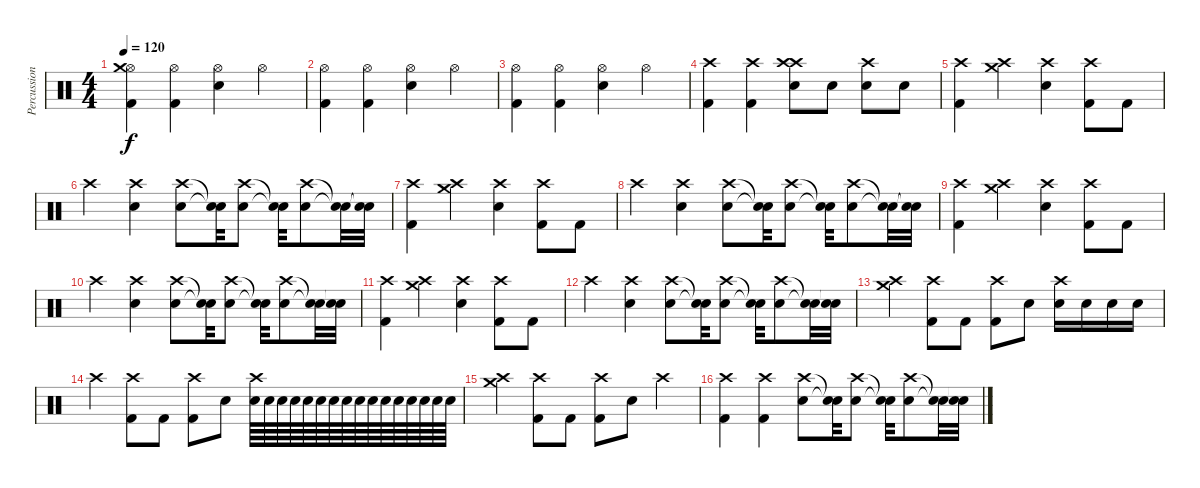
\track ("Percussioni" "Percussion") {instrument percussion}
\staff {score}
\articulation defaults
\ts (4 4)
\tempo 120
\clef neutral
\ks c
("Hi-Hat (open)" "Crash medium (hit)" "Kick (hit) 2").4{dy f} ("Hi-Hat (open)" "Kick (hit) 2").4 ("Hi-Hat (open)" "Snare (hit) 2").4 "Hi-Hat (open)".4 |
("Hi-Hat (open)" "Kick (hit) 2").4 ("Hi-Hat (open)" "Kick (hit) 2").4 ("Hi-Hat (open)" "Snare (hit) 2").4 "Hi-Hat (open)".4 |
("Hi-Hat (open)" "Kick (hit) 2").4 ("Hi-Hat (open)" "Kick (hit) 2").4 ("Hi-Hat (open)" "Snare (hit) 2").4 "Hi-Hat (open)".4 |
("Crash high (hit)" "Kick (hit) 2").4 ("Crash high (hit)" "Kick (hit) 2").4 ("Crash high (hit)" "Crash high (hit)" "Snare (hit) 2").8 "Snare (hit) 2".8 ("Crash high (hit)" "Snare (hit) 2").8 "Snare (hit) 2".8 |
("Crash high (hit)" "Kick (hit) 2").4 ("Crash high (hit)" "Crash medium (hit)").4 ("Crash high (hit)" "Snare (hit) 2").4 ("Crash high (hit)" "Kick (hit) 2").8 "Kick (hit) 2".8 |
"Crash high (hit)".4 ("Crash high (hit)" "Snare (hit) 2").4 ("Crash high (hit)" "Snare (hit) 2").8 ("Snare (hit)"{t} "Snare (hit)"{t}).32 ("Crash high (hit)" "Snare (hit) 2").8 ("Snare (hit)"{t} "Snare (hit)"{t}).32 ("Crash high (hit)" "Snare (hit) 2").8 ("Snare (hit)"{t} "Snare (hit)"{t}).32 ("Snare (hit)"{t} "Snare (hit)"{t}).32 |
("Crash high (hit)" "Kick (hit) 2").4 ("Crash high (hit)" "Crash medium (hit)").4 ("Crash high (hit)" "Snare (hit) 2").4 ("Crash high (hit)" "Kick (hit) 2").8 "Kick (hit) 2".8 |
"Crash high (hit)".4 ("Crash high (hit)" "Snare (hit) 2").4 ("Crash high (hit)" "Snare (hit) 2").8 ("Snare (hit)"{t} "Snare (hit)"{t}).32 ("Crash high (hit)" "Snare (hit) 2").8 ("Snare (hit)"{t} "Snare (hit)"{t}).32 ("Crash high (hit)" "Snare (hit) 2").8 ("Snare (hit)"{t} "Snare (hit)"{t}).32 ("Snare (hit)"{t} "Snare (hit)"{t}).32 |
("Crash high (hit)" "Kick (hit) 2").4 ("Crash high (hit)" "Crash medium (hit)").4 ("Crash high (hit)" "Snare (hit) 2").4 ("Crash high (hit)" "Kick (hit) 2").8 "Kick (hit) 2".8 |
"Crash high (hit)".4 ("Crash high (hit)" "Snare (hit) 2").4 ("Crash high (hit)" "Snare (hit) 2").8 ("Snare (hit)"{t} "Snare (hit)"{t}).32 ("Crash high (hit)" "Snare (hit) 2").8 ("Snare (hit)"{t} "Snare (hit)"{t}).32 ("Crash high (hit)" "Snare (hit) 2").8 ("Snare (hit)"{t} "Snare (hit)"{t}).32 ("Snare (hit)"{t} "Snare (hit)"{t}).32 |
("Crash high (hit)" "Kick (hit) 2").4 ("Crash high (hit)" "Crash medium (hit)").4 ("Crash high (hit)" "Snare (hit) 2").4 ("Crash high (hit)" "Kick (hit) 2").8 "Kick (hit) 2".8 |
"Crash high (hit)".4 ("Crash high (hit)" "Snare (hit) 2").4 ("Crash high (hit)" "Snare (hit) 2").8 ("Snare (hit)"{t} "Snare (hit)"{t}).32 ("Crash high (hit)" "Snare (hit) 2").8 ("Snare (hit)"{t} "Snare (hit)"{t}).32 ("Crash high (hit)" "Snare (hit) 2").8 ("Snare (hit)"{t} "Snare (hit)"{t}).32 ("Snare (hit)"{t} "Snare (hit)"{t}).32 |
("Crash high (hit)" "Crash medium (hit)").4 ("Crash high (hit)" "Kick (hit) 2").8 "Kick (hit) 2".8 ("Crash high (hit)" "Kick (hit) 2").8 "Snare (hit) 2".8 ("Crash high (hit)" "Snare (hit) 2").16 "Snare (hit) 2".16 "Snare (hit) 2".16 "Snare (hit) 2".16 |
"Crash high (hit)".4 ("Crash high (hit)" "Kick (hit) 2").8 "Kick (hit) 2".8 ("Crash high (hit)" "Kick (hit) 2").8 "Snare (hit) 2".8 ("Crash high (hit)" "Snare (hit) 2").64 "Snare (hit) 2".64 "Snare (hit) 2".64 "Snare (hit) 2".64 "Snare (hit) 2".64 "Snare (hit) 2".64 "Snare (hit) 2".64 "Snare (hit) 2".64 "Snare (hit) 2".64 "Snare (hit) 2".64 "Snare (hit) 2".64 "Snare (hit) 2".64 "Snare (hit) 2".64 "Snare (hit) 2".64 "Snare (hit) 2".64 "Snare (hit) 2".64 |
("Crash high (hit)" "Crash medium (hit)").4 ("Crash high (hit)" "Kick (hit) 2").8 "Kick (hit) 2".8 ("Crash high (hit)" "Kick (hit) 2").8 "Snare (hit) 2".8 "Crash high (hit)".4 |
("Crash high (hit)" "Kick (hit) 2").4 ("Crash high (hit)" "Kick (hit) 2").4 ("Crash high (hit)" "Snare (hit) 2").8 ("Snare (hit)"{t} "Snare (hit)"{t}).32 ("Crash high (hit)" "Snare (hit) 2").8 ("Snare (hit)"{t} "Snare (hit)"{t}).32 ("Crash high (hit)" "Snare (hit) 2").8 ("Snare (hit)"{t} "Snare (hit)"{t}).32 ("Snare (hit)"{t} "Snare (hit)"{t}).32
